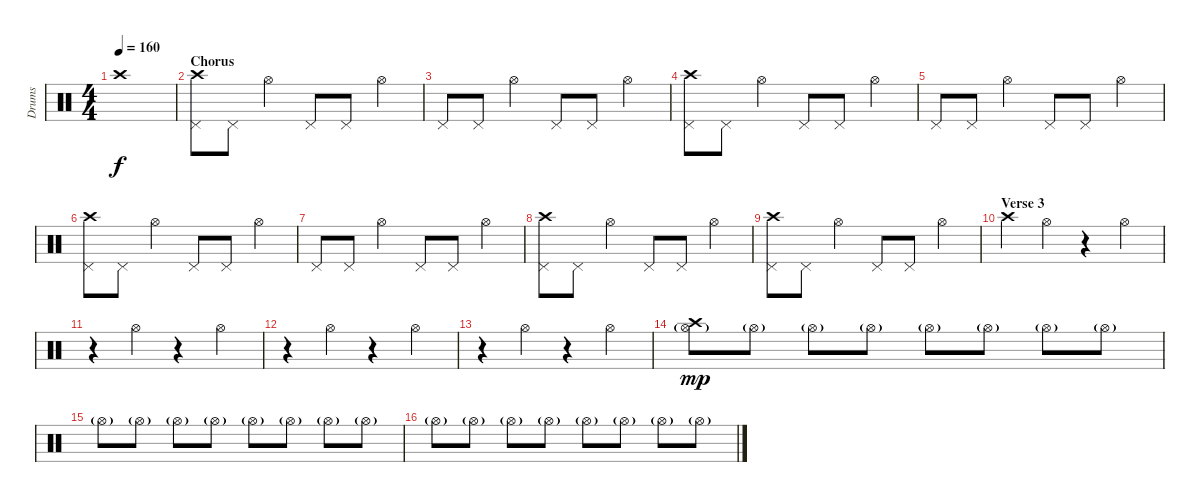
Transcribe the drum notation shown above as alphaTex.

\track ("Drums" "Drums") {instrument percussion}
\staff {score}
\articulation defaults
\ts (4 4)
\tempo 160
\clef neutral
\ks c "Crash high (hit)".1{dy f}
|
\section ("" "Chorus")
("Crash high (hit)" "Pedal Hi-Hat (hit)").8 "Pedal Hi-Hat (hit)".8 "Hi-Hat (open)".4 "Pedal Hi-Hat (hit)".8 "Pedal Hi-Hat (hit)".8 "Hi-Hat (open)".4 |
"Pedal Hi-Hat (hit)".8 "Pedal Hi-Hat (hit)".8 "Hi-Hat (open)".4 "Pedal Hi-Hat (hit)".8 "Pedal Hi-Hat (hit)".8 "Hi-Hat (open)".4 |
("Crash high (hit)" "Pedal Hi-Hat (hit)").8 "Pedal Hi-Hat (hit)".8 "Hi-Hat (open)".4 "Pedal Hi-Hat (hit)".8 "Pedal Hi-Hat (hit)".8 "Hi-Hat (open)".4 |
"Pedal Hi-Hat (hit)".8 "Pedal Hi-Hat (hit)".8 "Hi-Hat (open)".4 "Pedal Hi-Hat (hit)".8 "Pedal Hi-Hat (hit)".8 "Hi-Hat (open)".4 |
("Crash high (hit)" "Pedal Hi-Hat (hit)").8 "Pedal Hi-Hat (hit)".8 "Hi-Hat (open)".4 "Pedal Hi-Hat (hit)".8 "Pedal Hi-Hat (hit)".8 "Hi-Hat (open)".4 |
"Pedal Hi-Hat (hit)".8 "Pedal Hi-Hat (hit)".8 "Hi-Hat (open)".4 "Pedal Hi-Hat (hit)".8 "Pedal Hi-Hat (hit)".8 "Hi-Hat (open)".4 |
("Crash high (hit)" "Pedal Hi-Hat (hit)").8 "Pedal Hi-Hat (hit)".8 "Hi-Hat (open)".4 "Pedal Hi-Hat (hit)".8 "Pedal Hi-Hat (hit)".8 "Hi-Hat (open)".4 |
("Crash high (hit)" "Pedal Hi-Hat (hit)").8 "Pedal Hi-Hat (hit)".8 "Hi-Hat (open)".4 "Pedal Hi-Hat (hit)".8 "Pedal Hi-Hat (hit)".8 "Hi-Hat (open)".4 |
\section ("" "Verse 3")
"Crash high (hit)".4 "Hi-Hat (open)".4 r.4 "Hi-Hat (open)".4 |
r.4 "Hi-Hat (open)".4 r.4 "Hi-Hat (open)".4 |
r.4 "Hi-Hat (open)".4 r.4 "Hi-Hat (open)".4 |
r.4 "Hi-Hat (open)".4 r.4 "Hi-Hat (open)".4 |
("Hi-Hat (open)"{g} "Crash high (hit)").8{dy mp} "Hi-Hat (open)"{g}.8 "Hi-Hat (open)"{g}.8 "Hi-Hat (open)"{g}.8 "Hi-Hat (open)"{g}.8 "Hi-Hat (open)"{g}.8 "Hi-Hat (open)"{g}.8 "Hi-Hat (open)"{g}.8 |
"Hi-Hat (open)"{g}.8 "Hi-Hat (open)"{g}.8 "Hi-Hat (open)"{g}.8 "Hi-Hat (open)"{g}.8 "Hi-Hat (open)"{g}.8 "Hi-Hat (open)"{g}.8 "Hi-Hat (open)"{g}.8 "Hi-Hat (open)"{g}.8 |
"Hi-Hat (open)"{g}.8 "Hi-Hat (open)"{g}.8 "Hi-Hat (open)"{g}.8 "Hi-Hat (open)"{g}.8 "Hi-Hat (open)"{g}.8 "Hi-Hat (open)"{g}.8 "Hi-Hat (open)"{g}.8 "Hi-Hat (open)"{g}.8
